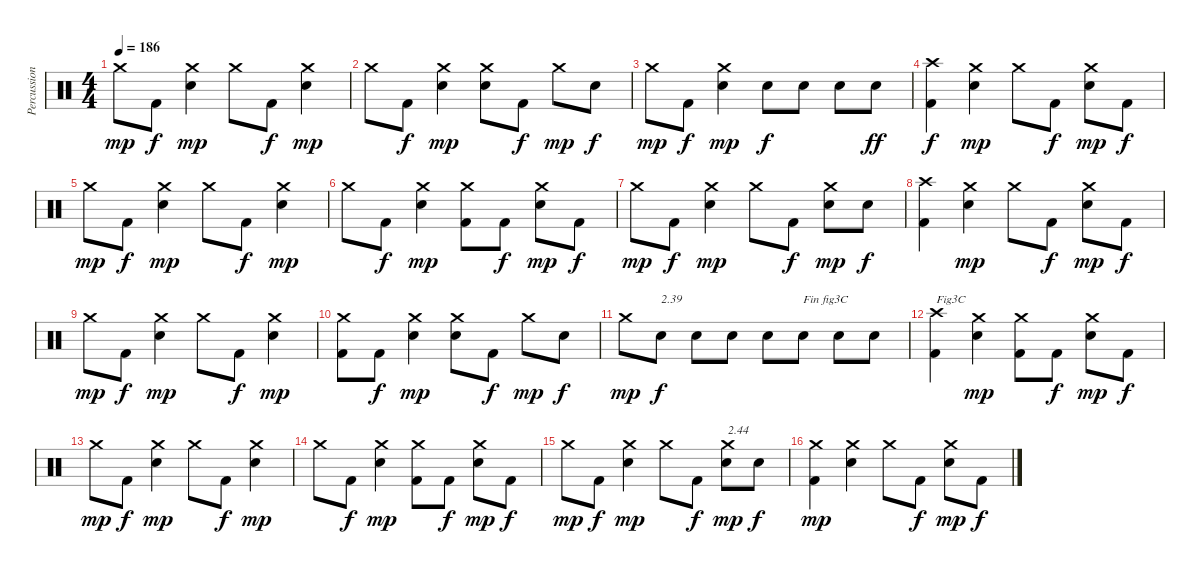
\track ("Percussions" "Percussion") {instrument percussion}
\staff {score}
\articulation defaults
\ts (4 4)
\tempo 186
\clef neutral
\ks c "Crash medium (hit)".8{dy mp} "Kick (hit) 2".8{dy f}
("Electric Snare (hit)" "Crash medium (hit)").4{dy mp} "Crash medium (hit)".8 "Kick (hit) 2".8{dy f} ("Electric Snare (hit)" "Crash medium (hit)").4{dy mp} |
"Crash medium (hit)".8 "Kick (hit) 2".8{dy f} ("Electric Snare (hit)" "Crash medium (hit)").4{dy mp} ("Electric Snare (hit)" "Crash medium (hit)").8 "Kick (hit) 2".8{dy f} "Crash medium (hit)".8{dy mp} "Electric Snare (hit)".8{dy f} |
"Crash medium (hit)".8{dy mp} "Kick (hit) 2".8{dy f} ("Electric Snare (hit)" "Crash medium (hit)").4{dy mp} "Electric Snare (hit)".8{dy f} "Electric Snare (hit)".8 "Electric Snare (hit)".8 "Electric Snare (hit)".8{dy ff} |
("Kick (hit) 2" "Crash high (hit)").4{dy f} ("Electric Snare (hit)" "Crash medium (hit)").4{dy mp} "Crash medium (hit)".8 "Kick (hit) 2".8{dy f} ("Electric Snare (hit)" "Crash medium (hit)").8{dy mp} "Kick (hit) 2".8{dy f} |
"Crash medium (hit)".8{dy mp} "Kick (hit) 2".8{dy f} ("Electric Snare (hit)" "Crash medium (hit)").4{dy mp} "Crash medium (hit)".8 "Kick (hit) 2".8{dy f} ("Electric Snare (hit)" "Crash medium (hit)").4{dy mp} |
"Crash medium (hit)".8 "Kick (hit) 2".8{dy f} ("Electric Snare (hit)" "Crash medium (hit)").4{dy mp} ("Kick (hit) 2" "Crash medium (hit)").8 "Kick (hit) 2".8{dy f} ("Electric Snare (hit)" "Crash medium (hit)").8{dy mp} "Kick (hit) 2".8{dy f} |
"Crash medium (hit)".8{dy mp} "Kick (hit) 2".8{dy f} ("Electric Snare (hit)" "Crash medium (hit)").4{dy mp} "Crash medium (hit)".8 "Kick (hit) 2".8{dy f} ("Electric Snare (hit)" "Crash medium (hit)").8{dy mp} "Electric Snare (hit)".8{dy f} |
("Kick (hit) 2" "Crash high (hit)").4 ("Electric Snare (hit)" "Crash medium (hit)").4{dy mp} "Crash medium (hit)".8 "Kick (hit) 2".8{dy f} ("Electric Snare (hit)" "Crash medium (hit)").8{dy mp} "Kick (hit) 2".8{dy f} |
"Crash medium (hit)".8{dy mp} "Kick (hit) 2".8{dy f} ("Electric Snare (hit)" "Crash medium (hit)").4{dy mp} "Crash medium (hit)".8 "Kick (hit) 2".8{dy f} ("Electric Snare (hit)" "Crash medium (hit)").4{dy mp} |
("Kick (hit) 2" "Crash medium (hit)").8 "Kick (hit) 2".8{dy f} ("Electric Snare (hit)" "Crash medium (hit)").4{dy mp} ("Electric Snare (hit)" "Crash medium (hit)").8 "Kick (hit) 2".8{dy f} "Crash medium (hit)".8{dy mp} "Electric Snare (hit)".8{dy f} |
"Crash medium (hit)".8{dy mp} "Electric Snare (hit)".8{txt "2.39" dy f} "Electric Snare (hit)".8 "Electric Snare (hit)".8 "Electric Snare (hit)".8 "Electric Snare (hit)".8{txt "Fin fig3C"} "Electric Snare (hit)".8 "Electric Snare (hit)".8 |
("Kick (hit) 2" "Crash high (hit)").4{txt "Fig3C"} ("Electric Snare (hit)" "Crash medium (hit)").4{dy mp} ("Kick (hit) 2" "Crash medium (hit)").8 "Kick (hit) 2".8{dy f} ("Electric Snare (hit)" "Crash medium (hit)").8{dy mp} "Kick (hit) 2".8{dy f} |
"Crash medium (hit)".8{dy mp} "Kick (hit) 2".8{dy f} ("Electric Snare (hit)" "Crash medium (hit)").4{dy mp} "Crash medium (hit)".8 "Kick (hit) 2".8{dy f} ("Electric Snare (hit)" "Crash medium (hit)").4{dy mp} |
"Crash medium (hit)".8 "Kick (hit) 2".8{dy f} ("Electric Snare (hit)" "Crash medium (hit)").4{dy mp} ("Kick (hit) 2" "Crash medium (hit)").8 "Kick (hit) 2".8{dy f} ("Electric Snare (hit)" "Crash medium (hit)").8{dy mp} "Kick (hit) 2".8{dy f} |
"Crash medium (hit)".8{dy mp} "Kick (hit) 2".8{dy f} ("Electric Snare (hit)" "Crash medium (hit)").4{dy mp} "Crash medium (hit)".8 "Kick (hit) 2".8{dy f} ("Electric Snare (hit)" "Crash medium (hit)").8{txt "2.44" dy mp} "Electric Snare (hit)".8{dy f} |
("Kick (hit) 2" "Crash medium (hit)").4{dy mp} ("Electric Snare (hit)" "Crash medium (hit)").4 "Crash medium (hit)".8 "Kick (hit) 2".8{dy f} ("Electric Snare (hit)" "Crash medium (hit)").8{dy mp} "Kick (hit) 2".8{dy f}
